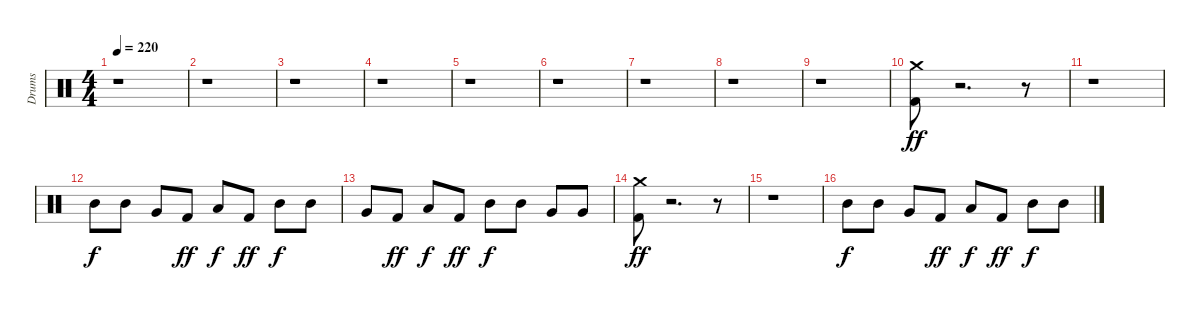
\track ("Drums" "Drums") {instrument percussion}
\staff {score}
\articulation defaults
\ts (4 4)
\tempo 220
\clef neutral
\ks c
r.1{dy fff} |
r.1 |
r.1 |
r.1 |
r.1 |
r.1 |
r.1 |
r.1 |
r.1 |
("Kick (hit) 2" "Crash medium (hit)").8{dy ff} r.2{d} r.8 |
r.1 |
"Mid Tom (hit)".8{dy f} "Mid Tom (hit)".8 "Very Low Tom (hit)".8 "Kick (hit) 2".8{dy ff} "Low Floor Tom (hit)".8{dy f} "Kick (hit) 2".8{dy ff} "Mid Tom (hit)".8{dy f} "Mid Tom (hit)".8 |
"Very Low Tom (hit)".8 "Kick (hit) 2".8{dy ff} "Low Floor Tom (hit)".8{dy f} "Kick (hit) 2".8{dy ff} "Mid Tom (hit)".8{dy f} "Mid Tom (hit)".8 "Very Low Tom (hit)".8 "Very Low Tom (hit)".8 |
("Kick (hit) 2" "Crash medium (hit)").8{dy ff} r.2{d} r.8 |
r.1 |
"Mid Tom (hit)".8{dy f} "Mid Tom (hit)".8 "Very Low Tom (hit)".8 "Kick (hit) 2".8{dy ff} "Low Floor Tom (hit)".8{dy f} "Kick (hit) 2".8{dy ff} "Mid Tom (hit)".8{dy f} "Mid Tom (hit)".8
